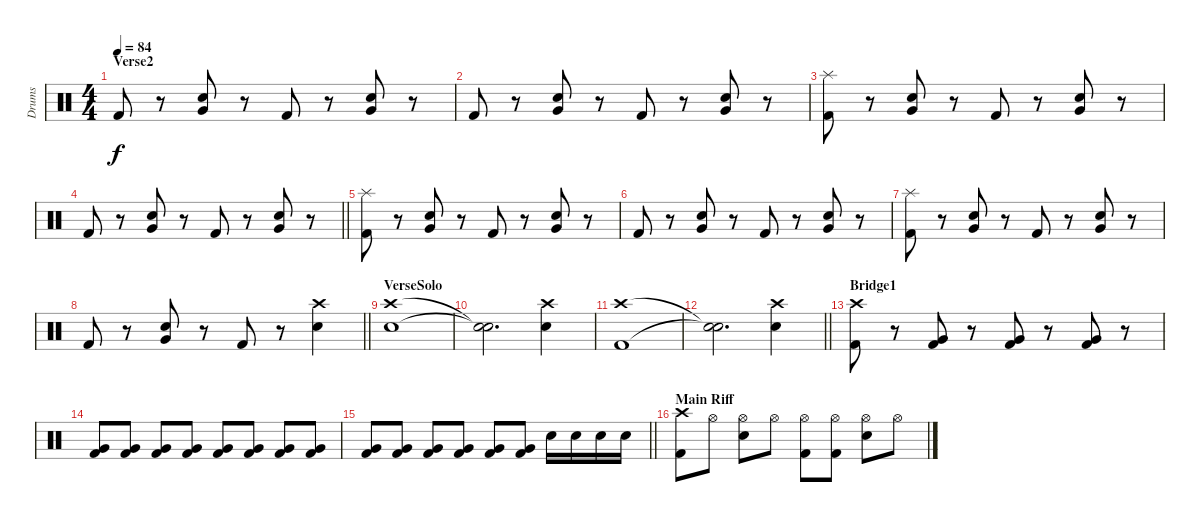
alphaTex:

\track ("Drums" "Drums") {instrument percussion}
\staff {score}
\articulation defaults
\ts (4 4)
\section ("" "Verse2")
\tempo 84
\clef neutral
\ks c "Kick (hit) 2".8{dy f}
r.8 ("Very Low Tom (hit)" "Snare (hit) 2").8 r.8 "Kick (hit) 2".8 r.8 ("Very Low Tom (hit)" "Snare (hit) 2").8 r.8 |
"Kick (hit) 2".8 r.8 ("Very Low Tom (hit)" "Snare (hit) 2").8 r.8 "Kick (hit) 2".8 r.8 ("Very Low Tom (hit)" "Snare (hit) 2").8 r.8 |
("Splash (hit)" "Kick (hit) 2").8 r.8 ("Very Low Tom (hit)" "Snare (hit) 2").8 r.8 "Kick (hit) 2".8 r.8 ("Very Low Tom (hit)" "Snare (hit) 2").8 r.8 |
\barLineRight lightlight "Kick (hit) 2".8
r.8 ("Very Low Tom (hit)" "Snare (hit) 2").8 r.8 "Kick (hit) 2".8 r.8 ("Very Low Tom (hit)" "Snare (hit) 2").8 r.8 |
("Splash (hit)" "Kick (hit) 2").8 r.8 ("Very Low Tom (hit)" "Snare (hit) 2").8 r.8 "Kick (hit) 2".8 r.8 ("Very Low Tom (hit)" "Snare (hit) 2").8 r.8 |
"Kick (hit) 2".8 r.8 ("Very Low Tom (hit)" "Snare (hit) 2").8 r.8 "Kick (hit) 2".8 r.8 ("Very Low Tom (hit)" "Snare (hit) 2").8 r.8 |
("Splash (hit)" "Kick (hit) 2").8 r.8 ("Very Low Tom (hit)" "Snare (hit) 2").8 r.8 "Kick (hit) 2".8 r.8 ("Very Low Tom (hit)" "Snare (hit) 2").8 r.8 |
\barLineRight lightlight "Kick (hit) 2".8
r.8 ("Very Low Tom (hit)" "Snare (hit) 2").8 r.8 "Kick (hit) 2".8 r.8 ("Crash high (hit)" "Snare (hit) 2").4 |
\section ("" "VerseSolo")
("Crash high (hit)" "Snare (hit) 2").1 |
("Snare (hit)"{t} "Snare (hit)"{t}).2{d} ("Crash high (hit)" "Snare (hit) 2").4 |
("Crash high (hit)" "Kick (hit) 2").1 |
\barLineRight lightlight
("Snare (hit)"{t} "Snare (hit)"{t}).2{d} ("Crash high (hit)" "Snare (hit) 2").4 |
\section ("" "Bridge1")
("Crash high (hit)" "Kick (hit) 2").8 r.8 ("Very Low Tom (hit)" "Kick (hit) 2").8 r.8 ("Very Low Tom (hit)" "Kick (hit) 2").8 r.8 ("Very Low Tom (hit)" "Kick (hit) 2").8 r.8 |
("Very Low Tom (hit)" "Kick (hit) 2").8 ("Very Low Tom (hit)" "Kick (hit) 2").8 ("Very Low Tom (hit)" "Kick (hit) 2").8 ("Very Low Tom (hit)" "Kick (hit) 2").8 ("Very Low Tom (hit)" "Kick (hit) 2").8 ("Very Low Tom (hit)" "Kick (hit) 2").8 ("Very Low Tom (hit)" "Kick (hit) 2").8 ("Very Low Tom (hit)" "Kick (hit) 2").8 |
\barLineRight lightlight
("Very Low Tom (hit)" "Kick (hit) 2").8 ("Very Low Tom (hit)" "Kick (hit) 2").8 ("Very Low Tom (hit)" "Kick (hit) 2").8 ("Very Low Tom (hit)" "Kick (hit) 2").8 ("Very Low Tom (hit)" "Kick (hit) 2").8 ("Very Low Tom (hit)" "Kick (hit) 2").8 "Snare (hit) 2".16 "Snare (hit) 2".16 "Snare (hit) 2".16 "Snare (hit) 2".16 |
\section ("" "Main Riff")
("Crash high (hit)" "Kick (hit) 2").8 "Hi-Hat (open)".8 ("Hi-Hat (open)" "Snare (hit) 2").8 "Hi-Hat (open)".8 ("Hi-Hat (open)" "Kick (hit) 2").8 ("Hi-Hat (open)" "Kick (hit) 2").8 ("Hi-Hat (open)" "Snare (hit) 2").8 "Hi-Hat (open)".8
